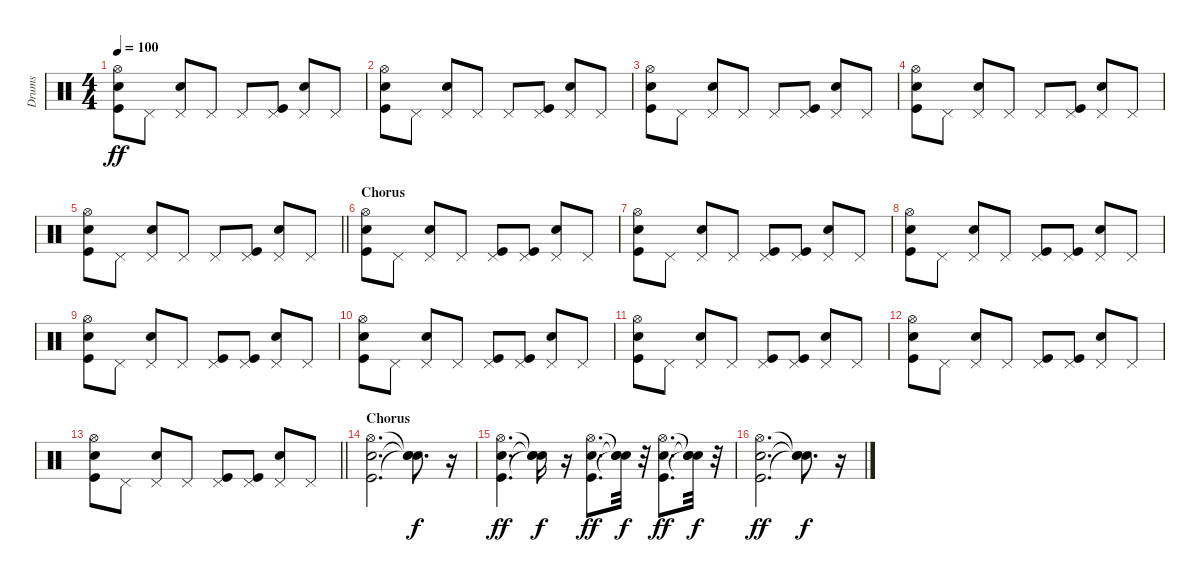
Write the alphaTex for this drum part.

\track ("Drums" "Drums") {instrument percussion}
\staff {score}
\articulation defaults
\ts (4 4)
\tempo 100
\clef neutral
\ks c
("Kick (hit)" "Electric Snare (hit)" "Hi-Hat (open)").8{dy ff} "Pedal Hi-Hat (hit)".8 ("Electric Snare (hit)" "Pedal Hi-Hat (hit)").8 "Pedal Hi-Hat (hit)".8 "Pedal Hi-Hat (hit)".8 ("Kick (hit)" "Pedal Hi-Hat (hit)").8 ("Electric Snare (hit)" "Pedal Hi-Hat (hit)").8 "Pedal Hi-Hat (hit)".8 |
("Kick (hit)" "Electric Snare (hit)" "Hi-Hat (open)").8 "Pedal Hi-Hat (hit)".8 ("Electric Snare (hit)" "Pedal Hi-Hat (hit)").8 "Pedal Hi-Hat (hit)".8 "Pedal Hi-Hat (hit)".8 ("Kick (hit)" "Pedal Hi-Hat (hit)").8 ("Electric Snare (hit)" "Pedal Hi-Hat (hit)").8 "Pedal Hi-Hat (hit)".8 |
("Kick (hit)" "Electric Snare (hit)" "Hi-Hat (open)").8 "Pedal Hi-Hat (hit)".8 ("Electric Snare (hit)" "Pedal Hi-Hat (hit)").8 "Pedal Hi-Hat (hit)".8 "Pedal Hi-Hat (hit)".8 ("Kick (hit)" "Pedal Hi-Hat (hit)").8 ("Electric Snare (hit)" "Pedal Hi-Hat (hit)").8 "Pedal Hi-Hat (hit)".8 |
("Kick (hit)" "Electric Snare (hit)" "Hi-Hat (open)").8 "Pedal Hi-Hat (hit)".8 ("Electric Snare (hit)" "Pedal Hi-Hat (hit)").8 "Pedal Hi-Hat (hit)".8 "Pedal Hi-Hat (hit)".8 ("Kick (hit)" "Pedal Hi-Hat (hit)").8 ("Electric Snare (hit)" "Pedal Hi-Hat (hit)").8 "Pedal Hi-Hat (hit)".8 |
\barLineRight lightlight
("Kick (hit)" "Electric Snare (hit)" "Hi-Hat (open)").8 "Pedal Hi-Hat (hit)".8 ("Electric Snare (hit)" "Pedal Hi-Hat (hit)").8 "Pedal Hi-Hat (hit)".8 "Pedal Hi-Hat (hit)".8 ("Kick (hit)" "Pedal Hi-Hat (hit)").8 ("Electric Snare (hit)" "Pedal Hi-Hat (hit)").8 "Pedal Hi-Hat (hit)".8 |
\section ("" "Chorus")
("Kick (hit)" "Electric Snare (hit)" "Hi-Hat (open)").8 "Pedal Hi-Hat (hit)".8 ("Electric Snare (hit)" "Pedal Hi-Hat (hit)").8 "Pedal Hi-Hat (hit)".8 ("Kick (hit)" "Pedal Hi-Hat (hit)").8 ("Kick (hit)" "Pedal Hi-Hat (hit)").8 ("Electric Snare (hit)" "Pedal Hi-Hat (hit)").8 "Pedal Hi-Hat (hit)".8 |
("Kick (hit)" "Electric Snare (hit)" "Hi-Hat (open)").8 "Pedal Hi-Hat (hit)".8 ("Electric Snare (hit)" "Pedal Hi-Hat (hit)").8 "Pedal Hi-Hat (hit)".8 ("Kick (hit)" "Pedal Hi-Hat (hit)").8 ("Kick (hit)" "Pedal Hi-Hat (hit)").8 ("Electric Snare (hit)" "Pedal Hi-Hat (hit)").8 "Pedal Hi-Hat (hit)".8 |
("Kick (hit)" "Electric Snare (hit)" "Hi-Hat (open)").8 "Pedal Hi-Hat (hit)".8 ("Electric Snare (hit)" "Pedal Hi-Hat (hit)").8 "Pedal Hi-Hat (hit)".8 ("Kick (hit)" "Pedal Hi-Hat (hit)").8 ("Kick (hit)" "Pedal Hi-Hat (hit)").8 ("Electric Snare (hit)" "Pedal Hi-Hat (hit)").8 "Pedal Hi-Hat (hit)".8 |
("Kick (hit)" "Electric Snare (hit)" "Hi-Hat (open)").8 "Pedal Hi-Hat (hit)".8 ("Electric Snare (hit)" "Pedal Hi-Hat (hit)").8 "Pedal Hi-Hat (hit)".8 ("Kick (hit)" "Pedal Hi-Hat (hit)").8 ("Kick (hit)" "Pedal Hi-Hat (hit)").8 ("Electric Snare (hit)" "Pedal Hi-Hat (hit)").8 "Pedal Hi-Hat (hit)".8 |
("Kick (hit)" "Electric Snare (hit)" "Hi-Hat (open)").8 "Pedal Hi-Hat (hit)".8 ("Electric Snare (hit)" "Pedal Hi-Hat (hit)").8 "Pedal Hi-Hat (hit)".8 ("Kick (hit)" "Pedal Hi-Hat (hit)").8 ("Kick (hit)" "Pedal Hi-Hat (hit)").8 ("Electric Snare (hit)" "Pedal Hi-Hat (hit)").8 "Pedal Hi-Hat (hit)".8 |
("Kick (hit)" "Electric Snare (hit)" "Hi-Hat (open)").8 "Pedal Hi-Hat (hit)".8 ("Electric Snare (hit)" "Pedal Hi-Hat (hit)").8 "Pedal Hi-Hat (hit)".8 ("Kick (hit)" "Pedal Hi-Hat (hit)").8 ("Kick (hit)" "Pedal Hi-Hat (hit)").8 ("Electric Snare (hit)" "Pedal Hi-Hat (hit)").8 "Pedal Hi-Hat (hit)".8 |
("Kick (hit)" "Electric Snare (hit)" "Hi-Hat (open)").8 "Pedal Hi-Hat (hit)".8 ("Electric Snare (hit)" "Pedal Hi-Hat (hit)").8 "Pedal Hi-Hat (hit)".8 ("Kick (hit)" "Pedal Hi-Hat (hit)").8 ("Kick (hit)" "Pedal Hi-Hat (hit)").8 ("Electric Snare (hit)" "Pedal Hi-Hat (hit)").8 "Pedal Hi-Hat (hit)".8 |
\barLineRight lightlight
("Kick (hit)" "Electric Snare (hit)" "Hi-Hat (open)").8 "Pedal Hi-Hat (hit)".8 ("Electric Snare (hit)" "Pedal Hi-Hat (hit)").8 "Pedal Hi-Hat (hit)".8 ("Kick (hit)" "Pedal Hi-Hat (hit)").8 ("Kick (hit)" "Pedal Hi-Hat (hit)").8 ("Electric Snare (hit)" "Pedal Hi-Hat (hit)").8 "Pedal Hi-Hat (hit)".8 |
\section ("" "Chorus")
("Kick (hit)" "Electric Snare (hit)" "Hi-Hat (open)").2{d} ("Snare (hit)"{t} "Snare (hit)"{t} "Snare (hit)"{t}).8{d dy f} r.16 |
("Kick (hit)" "Electric Snare (hit)" "Hi-Hat (open)").4{d dy ff} ("Snare (hit)"{t} "Snare (hit)"{t} "Snare (hit)"{t}).16{dy f} r.16 ("Kick (hit)" "Electric Snare (hit)" "Hi-Hat (open)").8{d dy ff} ("Snare (hit)"{t} "Snare (hit)"{t} "Snare (hit)"{t}).32{dy f} r.32 ("Kick (hit)" "Electric Snare (hit)" "Hi-Hat (open)").8{d dy ff} ("Snare (hit)"{t} "Snare (hit)"{t} "Snare (hit)"{t}).32{dy f} r.32 |
("Kick (hit)" "Electric Snare (hit)" "Hi-Hat (open)").2{d dy ff} ("Snare (hit)"{t} "Snare (hit)"{t} "Snare (hit)"{t}).8{d dy f} r.16
